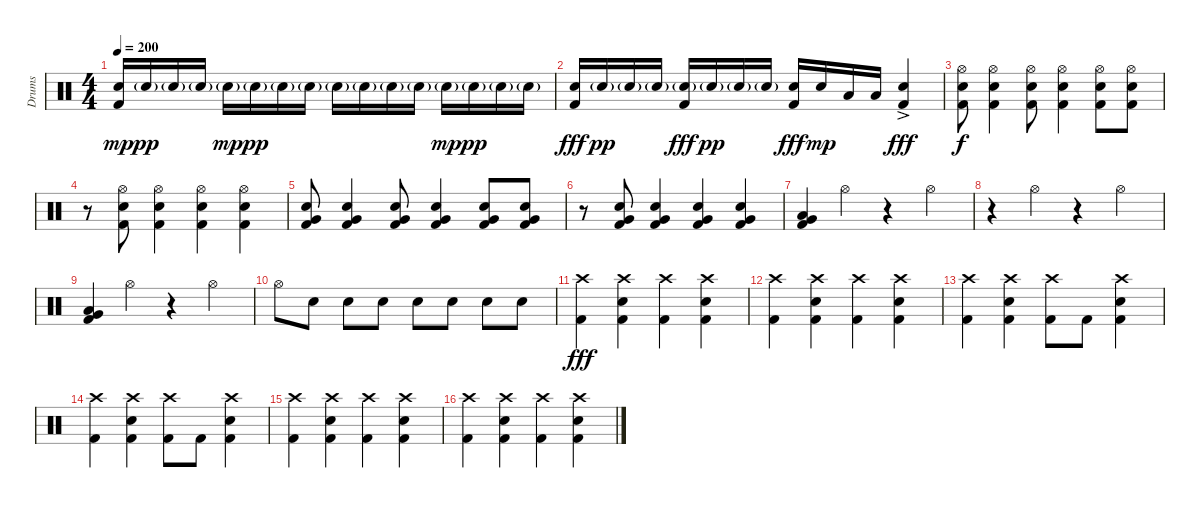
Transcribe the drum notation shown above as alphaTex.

\track ("Drums" "Drums") {instrument percussion}
\staff {score}
\articulation defaults
\ts (4 4)
\tempo 200
\clef neutral
\ks c
("Snare (hit) 2" "Kick (hit) 2").16{dy mp} "Snare (hit) 2"{g}.16{dy pp} "Snare (hit) 2"{g}.16 "Snare (hit) 2"{g}.16 "Snare (hit) 2"{g}.16{dy mp} "Snare (hit) 2"{g}.16{dy pp} "Snare (hit) 2"{g}.16 "Snare (hit) 2"{g}.16 "Snare (hit) 2"{g}.16 "Snare (hit) 2"{g}.16 "Snare (hit) 2"{g}.16 "Snare (hit) 2"{g}.16 "Snare (hit) 2"{g}.16{dy mp} "Snare (hit) 2"{g}.16{dy pp} "Snare (hit) 2"{g}.16 "Snare (hit) 2"{g}.16 |
("Snare (hit) 2" "Kick (hit) 2").16{dy fff} "Snare (hit) 2"{g}.16{dy pp} "Snare (hit) 2"{g}.16 "Snare (hit) 2"{g}.16 ("Snare (hit) 2"{g} "Kick (hit) 2").16{dy fff} "Snare (hit) 2"{g}.16{dy pp} "Snare (hit) 2"{g}.16 "Snare (hit) 2"{g}.16 ("Snare (hit) 2" "Kick (hit) 2").16{dy fff} "Snare (hit) 2".16{dy mp} "Low Tom (hit)".16 "Low Tom (hit)".16 ("Snare (hit) 2"{ac} "Kick (hit) 2"{ac}).4{dy fff} |
("Hi-Hat (open)" "Snare (hit) 2" "Kick (hit) 2").8{dy f} ("Hi-Hat (open)" "Snare (hit) 2" "Kick (hit) 2").4 ("Hi-Hat (open)" "Snare (hit) 2" "Kick (hit) 2").8 ("Hi-Hat (open)" "Snare (hit) 2" "Kick (hit) 2").4 ("Hi-Hat (open)" "Snare (hit) 2" "Kick (hit) 2").8 ("Hi-Hat (open)" "Snare (hit) 2" "Kick (hit) 2").8 |
r.8 ("Hi-Hat (open)" "Snare (hit) 2" "Kick (hit) 2").8 ("Hi-Hat (open)" "Snare (hit) 2" "Kick (hit) 2").4 ("Hi-Hat (open)" "Snare (hit) 2" "Kick (hit) 2").4 ("Hi-Hat (open)" "Snare (hit) 2" "Kick (hit) 2").4 |
("Very Low Tom (hit)" "Snare (hit) 2" "Kick (hit) 2").8 ("Very Low Tom (hit)" "Snare (hit) 2" "Kick (hit) 2").4 ("Very Low Tom (hit)" "Snare (hit) 2" "Kick (hit) 2").8 ("Very Low Tom (hit)" "Snare (hit) 2" "Kick (hit) 2").4 ("Very Low Tom (hit)" "Snare (hit) 2" "Kick (hit) 2").8 ("Very Low Tom (hit)" "Snare (hit) 2" "Kick (hit) 2").8 |
r.8 ("Very Low Tom (hit)" "Snare (hit) 2" "Kick (hit) 2").8 ("Very Low Tom (hit)" "Snare (hit) 2" "Kick (hit) 2").4 ("Very Low Tom (hit)" "Snare (hit) 2" "Kick (hit) 2").4 ("Very Low Tom (hit)" "Snare (hit) 2" "Kick (hit) 2").4 |
("Low Floor Tom (hit)" "Very Low Tom (hit)" "Kick (hit) 2").4 "Hi-Hat (open)".4 r.4 "Hi-Hat (open)".4 |
r.4 "Hi-Hat (open)".4 r.4 "Hi-Hat (open)".4 |
("Low Floor Tom (hit)" "Very Low Tom (hit)" "Kick (hit) 2").4 "Hi-Hat (open)".4 r.4 "Hi-Hat (open)".4 |
"Hi-Hat (open)".8 "Electric Snare (hit)".8 "Electric Snare (hit)".8 "Electric Snare (hit)".8 "Electric Snare (hit)".8 "Electric Snare (hit)".8 "Electric Snare (hit)".8 "Electric Snare (hit)".8 |
("Crash high (hit)" "Kick (hit) 2").4{dy fff} ("Crash high (hit)" "Snare (hit) 2" "Kick (hit) 2").4 ("Crash high (hit)" "Kick (hit) 2").4 ("Crash high (hit)" "Snare (hit) 2" "Kick (hit) 2").4 |
("Crash high (hit)" "Kick (hit) 2").4 ("Crash high (hit)" "Snare (hit) 2" "Kick (hit) 2").4 ("Crash high (hit)" "Kick (hit) 2").4 ("Crash high (hit)" "Snare (hit) 2" "Kick (hit) 2").4 |
("Crash high (hit)" "Kick (hit) 2").4 ("Crash high (hit)" "Snare (hit) 2" "Kick (hit) 2").4 ("Crash high (hit)" "Kick (hit) 2").8 "Kick (hit) 2".8 ("Crash high (hit)" "Snare (hit) 2" "Kick (hit) 2").4 |
("Crash high (hit)" "Kick (hit) 2").4 ("Crash high (hit)" "Snare (hit) 2" "Kick (hit) 2").4 ("Crash high (hit)" "Kick (hit) 2").8 "Kick (hit) 2".8 ("Crash high (hit)" "Snare (hit) 2" "Kick (hit) 2").4 |
("Crash high (hit)" "Kick (hit) 2").4 ("Crash high (hit)" "Snare (hit) 2" "Kick (hit) 2").4 ("Crash high (hit)" "Kick (hit) 2").4 ("Crash high (hit)" "Snare (hit) 2" "Kick (hit) 2").4 |
("Crash high (hit)" "Kick (hit) 2").4 ("Crash high (hit)" "Snare (hit) 2" "Kick (hit) 2").4 ("Crash high (hit)" "Kick (hit) 2").4 ("Crash high (hit)" "Snare (hit) 2" "Kick (hit) 2").4
